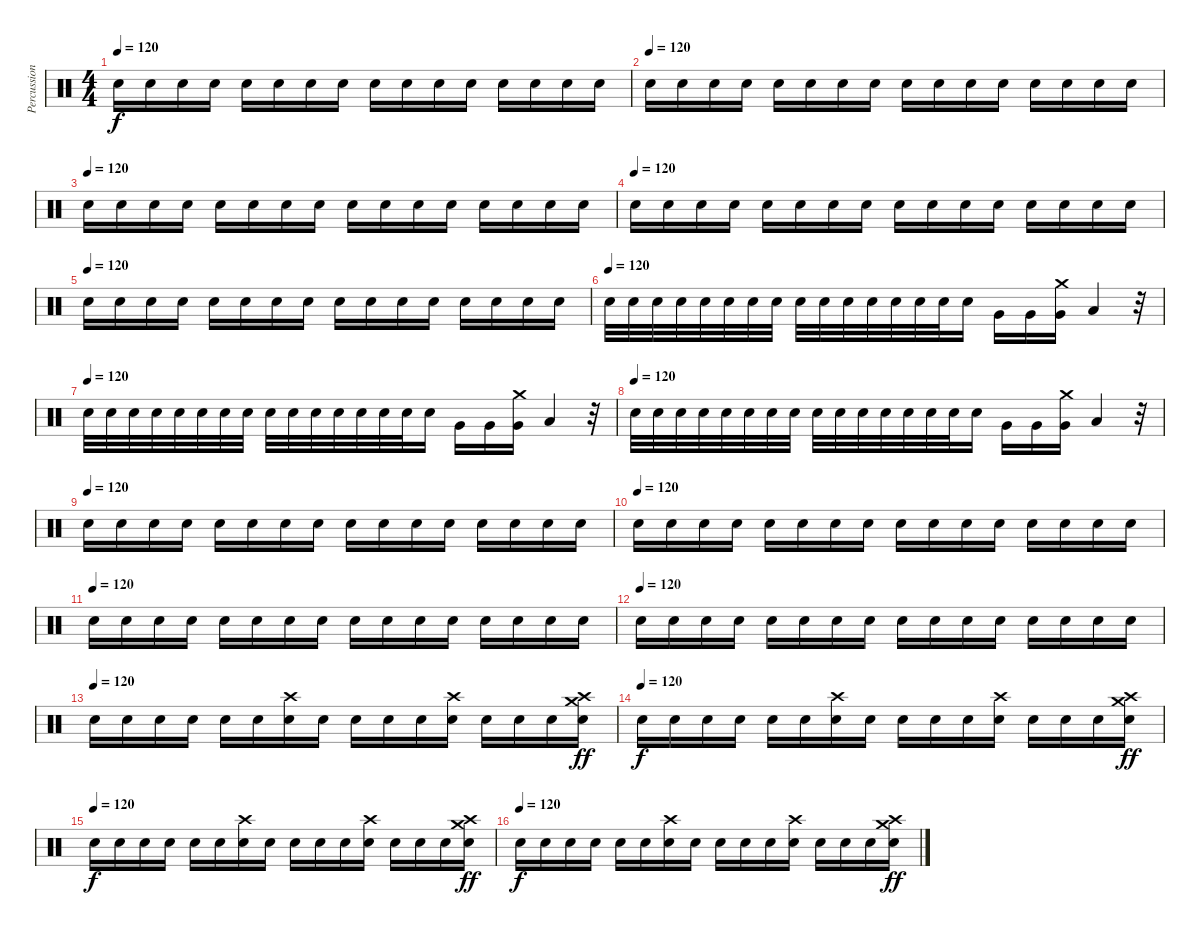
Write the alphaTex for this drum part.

\track ("Percussion" "Percussion") {instrument percussion}
\staff {score}
\articulation defaults
\ts (4 4)
\tempo 120
\clef neutral
\ks c "Snare (hit) 2".16{dy f} "Electric Snare (hit)".16 "Snare (hit) 2".16 "Electric Snare (hit)".16 "Snare (hit) 2".16 "Electric Snare (hit)".16 "Snare (hit) 2".16 "Snare (hit) 2".16 "Electric Snare (hit)".16 "Snare (hit) 2".16 "Electric Snare (hit)".16 "Snare (hit) 2".16 "Electric Snare (hit)".16 "Snare (hit) 2".16 "Electric Snare (hit)".16 "Snare (hit) 2".16
|
\tempo (120)
"Snare (hit) 2".16 "Electric Snare (hit)".16 "Snare (hit) 2".16 "Electric Snare (hit)".16 "Snare (hit) 2".16 "Electric Snare (hit)".16 "Snare (hit) 2".16 "Snare (hit) 2".16 "Electric Snare (hit)".16 "Snare (hit) 2".16 "Electric Snare (hit)".16 "Snare (hit) 2".16 "Electric Snare (hit)".16 "Snare (hit) 2".16 "Electric Snare (hit)".16 "Snare (hit) 2".16 |
\tempo (120)
"Snare (hit) 2".16 "Electric Snare (hit)".16 "Snare (hit) 2".16 "Electric Snare (hit)".16 "Snare (hit) 2".16 "Electric Snare (hit)".16 "Snare (hit) 2".16 "Snare (hit) 2".16 "Electric Snare (hit)".16 "Snare (hit) 2".16 "Electric Snare (hit)".16 "Snare (hit) 2".16 "Electric Snare (hit)".16 "Snare (hit) 2".16 "Electric Snare (hit)".16 "Snare (hit) 2".16 |
\tempo (120)
"Snare (hit) 2".16 "Electric Snare (hit)".16 "Snare (hit) 2".16{volume 8} "Electric Snare (hit)".16 "Snare (hit) 2".16 "Electric Snare (hit)".16 "Snare (hit) 2".16 "Snare (hit) 2".16 "Electric Snare (hit)".16 "Snare (hit) 2".16 "Electric Snare (hit)".16 "Snare (hit) 2".16 "Electric Snare (hit)".16 "Snare (hit) 2".16 "Electric Snare (hit)".16 "Snare (hit) 2".16 |
\tempo (120)
"Snare (hit) 2".16 "Electric Snare (hit)".16 "Snare (hit) 2".16 "Electric Snare (hit)".16 "Snare (hit) 2".16 "Electric Snare (hit)".16 "Snare (hit) 2".16 "Snare (hit) 2".16 "Electric Snare (hit)".16 "Snare (hit) 2".16 "Electric Snare (hit)".16 "Snare (hit) 2".16 "Electric Snare (hit)".16 "Snare (hit) 2".16 "Electric Snare (hit)".16 "Snare (hit) 2".16 |
\tempo (120)
"Snare (hit) 2".32 "Snare (hit) 2".32 "Snare (hit) 2".32 "Snare (hit) 2".32 "Snare (hit) 2".32 "Snare (hit) 2".32 "Snare (hit) 2".32 "Snare (hit) 2".32 "Snare (hit) 2".32 "Snare (hit) 2".32 "Snare (hit) 2".32 "Snare (hit) 2".32 "Snare (hit) 2".32 "Snare (hit) 2".32 "Electric Snare (hit)".32 "Snare (hit) 2".16 "Very Low Tom (hit)".16 "Very Low Tom (hit)".16 ("Very Low Tom (hit)" "Crash medium (hit)").16 "Low Tom (hit)".4 r.32 |
\tempo (120)
"Snare (hit) 2".32 "Snare (hit) 2".32 "Snare (hit) 2".32 "Snare (hit) 2".32 "Snare (hit) 2".32 "Snare (hit) 2".32 "Snare (hit) 2".32 "Snare (hit) 2".32 "Snare (hit) 2".32 "Snare (hit) 2".32 "Snare (hit) 2".32 "Snare (hit) 2".32 "Snare (hit) 2".32 "Snare (hit) 2".32 "Electric Snare (hit)".32{volume 13} "Snare (hit) 2".16 "Very Low Tom (hit)".16 "Very Low Tom (hit)".16 ("Very Low Tom (hit)" "Crash medium (hit)").16 "Low Tom (hit)".4 r.32 |
\tempo (120)
"Snare (hit) 2".32{volume 16} "Snare (hit) 2".32 "Snare (hit) 2".32 "Snare (hit) 2".32 "Snare (hit) 2".32 "Snare (hit) 2".32 "Snare (hit) 2".32 "Snare (hit) 2".32 "Snare (hit) 2".32 "Snare (hit) 2".32 "Snare (hit) 2".32 "Snare (hit) 2".32 "Snare (hit) 2".32 "Snare (hit) 2".32 "Electric Snare (hit)".32 "Snare (hit) 2".16 "Very Low Tom (hit)".16 "Very Low Tom (hit)".16 ("Very Low Tom (hit)" "Crash medium (hit)").16 "Low Tom (hit)".4 r.32 |
\tempo (120)
"Snare (hit) 2".16 "Electric Snare (hit)".16 "Snare (hit) 2".16 "Electric Snare (hit)".16 "Snare (hit) 2".16 "Electric Snare (hit)".16 "Snare (hit) 2".16 "Snare (hit) 2".16 "Electric Snare (hit)".16 "Snare (hit) 2".16 "Electric Snare (hit)".16 "Snare (hit) 2".16 "Electric Snare (hit)".16 "Snare (hit) 2".16 "Electric Snare (hit)".16 "Snare (hit) 2".16 |
\tempo (120)
"Snare (hit) 2".16 "Electric Snare (hit)".16 "Snare (hit) 2".16 "Electric Snare (hit)".16 "Snare (hit) 2".16 "Electric Snare (hit)".16 "Snare (hit) 2".16 "Snare (hit) 2".16 "Electric Snare (hit)".16 "Snare (hit) 2".16 "Electric Snare (hit)".16 "Snare (hit) 2".16 "Electric Snare (hit)".16 "Snare (hit) 2".16 "Electric Snare (hit)".16 "Snare (hit) 2".16 |
\tempo (120)
"Snare (hit) 2".16 "Electric Snare (hit)".16 "Snare (hit) 2".16 "Electric Snare (hit)".16 "Snare (hit) 2".16 "Electric Snare (hit)".16 "Snare (hit) 2".16 "Snare (hit) 2".16 "Electric Snare (hit)".16 "Snare (hit) 2".16 "Electric Snare (hit)".16 "Snare (hit) 2".16 "Electric Snare (hit)".16 "Snare (hit) 2".16 "Electric Snare (hit)".16 "Snare (hit) 2".16 |
\tempo (120)
"Snare (hit) 2".16 "Electric Snare (hit)".16 "Snare (hit) 2".16 "Electric Snare (hit)".16 "Snare (hit) 2".16 "Electric Snare (hit)".16 "Snare (hit) 2".16 "Snare (hit) 2".16 "Electric Snare (hit)".16 "Snare (hit) 2".16 "Electric Snare (hit)".16 "Snare (hit) 2".16 "Electric Snare (hit)".16 "Snare (hit) 2".16 "Electric Snare (hit)".16 "Snare (hit) 2".16 |
\tempo (120)
"Snare (hit) 2".16 "Electric Snare (hit)".16 "Snare (hit) 2".16 "Electric Snare (hit)".16 "Snare (hit) 2".16 "Electric Snare (hit)".16 ("Snare (hit) 2" "Crash high (hit)").16 "Snare (hit) 2".16 "Electric Snare (hit)".16 "Snare (hit) 2".16 "Electric Snare (hit)".16 ("Snare (hit) 2" "Crash high (hit)").16 "Electric Snare (hit)".16 "Snare (hit) 2".16 "Electric Snare (hit)".16 ("Snare (hit) 2" "Crash high (hit)" "Crash medium (hit)").16{dy ff} |
\tempo (120)
"Snare (hit) 2".16{dy f} "Electric Snare (hit)".16 "Snare (hit) 2".16 "Electric Snare (hit)".16 "Snare (hit) 2".16 "Electric Snare (hit)".16 ("Snare (hit) 2" "Crash high (hit)").16 "Snare (hit) 2".16 "Electric Snare (hit)".16 "Snare (hit) 2".16 "Electric Snare (hit)".16 ("Snare (hit) 2" "Crash high (hit)").16 "Electric Snare (hit)".16 "Snare (hit) 2".16 "Electric Snare (hit)".16 ("Snare (hit) 2" "Crash high (hit)" "Crash medium (hit)").16{dy ff} |
\tempo (120)
"Snare (hit) 2".16{dy f} "Electric Snare (hit)".16 "Snare (hit) 2".16 "Electric Snare (hit)".16 "Snare (hit) 2".16 "Electric Snare (hit)".16 ("Snare (hit) 2" "Crash high (hit)").16 "Snare (hit) 2".16 "Electric Snare (hit)".16 "Snare (hit) 2".16 "Electric Snare (hit)".16 ("Snare (hit) 2" "Crash high (hit)").16 "Electric Snare (hit)".16 "Snare (hit) 2".16 "Electric Snare (hit)".16 ("Snare (hit) 2" "Crash high (hit)" "Crash medium (hit)").16{dy ff} |
\tempo (120)
"Snare (hit) 2".16{dy f} "Electric Snare (hit)".16 "Snare (hit) 2".16 "Electric Snare (hit)".16 "Snare (hit) 2".16 "Electric Snare (hit)".16 ("Snare (hit) 2" "Crash high (hit)").16 "Snare (hit) 2".16 "Electric Snare (hit)".16 "Snare (hit) 2".16 "Electric Snare (hit)".16 ("Snare (hit) 2" "Crash high (hit)").16 "Electric Snare (hit)".16 "Snare (hit) 2".16 "Electric Snare (hit)".16 ("Snare (hit) 2" "Crash high (hit)" "Crash medium (hit)").16{dy ff}
